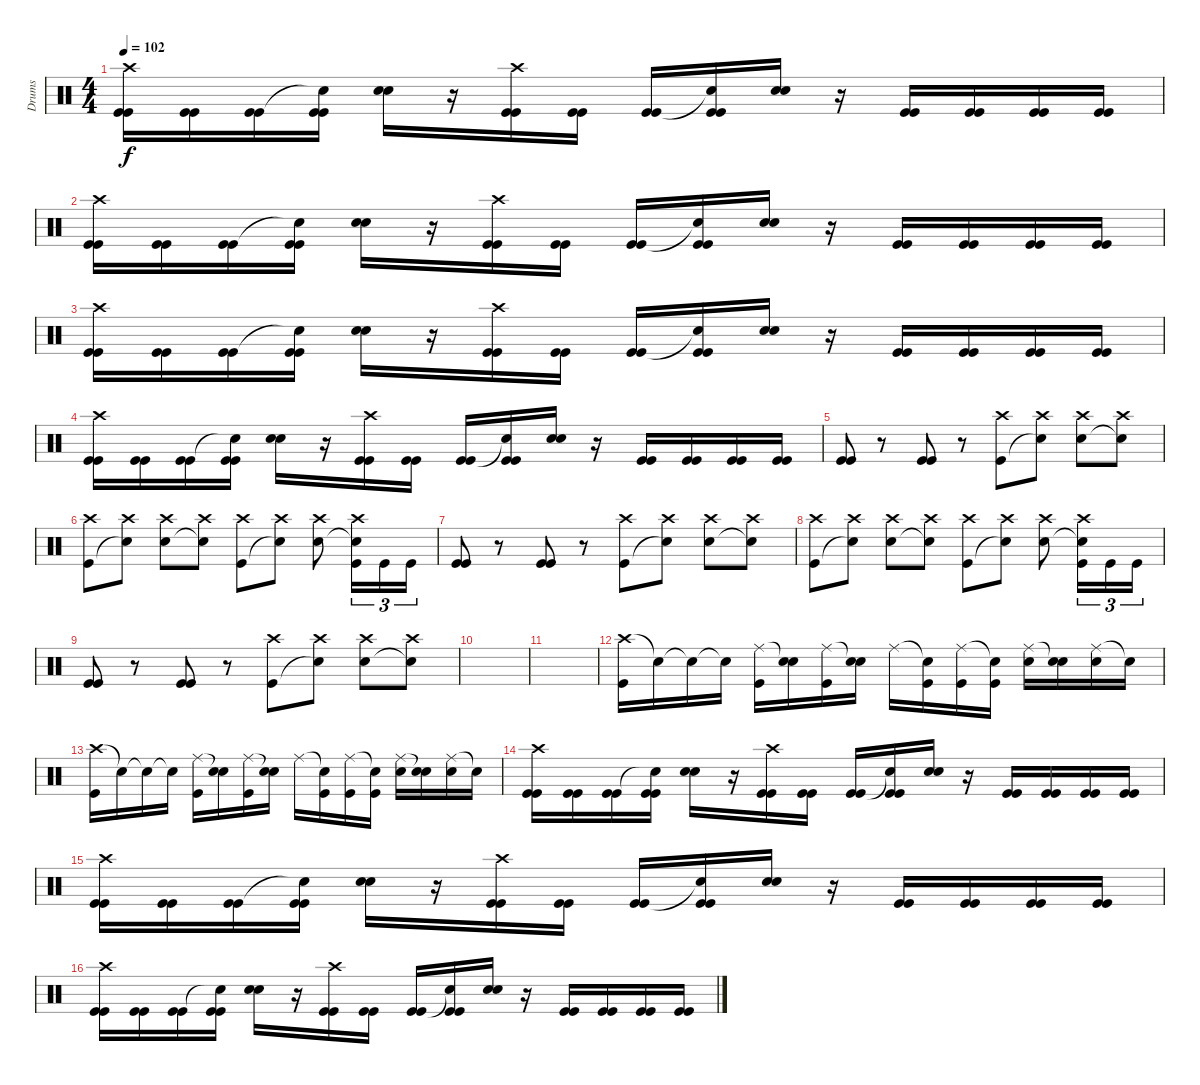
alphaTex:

\track ("Drums" "Drums") {instrument percussion}
\staff {score}
\articulation defaults
\ts (4 4)
\tempo 102
\clef neutral
\ks c
("Crash high (hit)" "Kick (hit)" "Kick (hit)").16{dy f} ("Kick (hit)" "Kick (hit)").16 ("Kick (hit)" "Kick (hit)").16 ("Snare (hit)"{t} "Kick (hit)" "Kick (hit)").16 ("Snare (hit) 2" "Snare (hit) 2").16 r.16 ("Crash high (hit)" "Kick (hit)" "Kick (hit)").16 ("Kick (hit)" "Kick (hit)").16 ("Kick (hit)" "Kick (hit)").16 ("Snare (hit)"{t} "Kick (hit)" "Kick (hit)").16 ("Snare (hit) 2" "Snare (hit) 2").16 r.16 ("Kick (hit)" "Kick (hit)").16 ("Kick (hit)" "Kick (hit)").16 ("Kick (hit)" "Kick (hit)").16 ("Kick (hit)" "Kick (hit)").16 |
("Crash high (hit)" "Kick (hit)" "Kick (hit)").16 ("Kick (hit)" "Kick (hit)").16 ("Kick (hit)" "Kick (hit)").16 ("Snare (hit)"{t} "Kick (hit)" "Kick (hit)").16 ("Snare (hit) 2" "Snare (hit) 2").16 r.16 ("Crash high (hit)" "Kick (hit)" "Kick (hit)").16 ("Kick (hit)" "Kick (hit)").16 ("Kick (hit)" "Kick (hit)").16 ("Snare (hit)"{t} "Kick (hit)" "Kick (hit)").16 ("Snare (hit) 2" "Snare (hit) 2").16 r.16 ("Kick (hit)" "Kick (hit)").16 ("Kick (hit)" "Kick (hit)").16 ("Kick (hit)" "Kick (hit)").16 ("Kick (hit)" "Kick (hit)").16 |
("Crash high (hit)" "Kick (hit)" "Kick (hit)").16 ("Kick (hit)" "Kick (hit)").16 ("Kick (hit)" "Kick (hit)").16 ("Snare (hit)"{t} "Kick (hit)" "Kick (hit)").16 ("Snare (hit) 2" "Snare (hit) 2").16 r.16 ("Crash high (hit)" "Kick (hit)" "Kick (hit)").16 ("Kick (hit)" "Kick (hit)").16 ("Kick (hit)" "Kick (hit)").16 ("Snare (hit)"{t} "Kick (hit)" "Kick (hit)").16 ("Snare (hit) 2" "Snare (hit) 2").16 r.16 ("Kick (hit)" "Kick (hit)").16 ("Kick (hit)" "Kick (hit)").16 ("Kick (hit)" "Kick (hit)").16 ("Kick (hit)" "Kick (hit)").16 |
("Crash high (hit)" "Kick (hit)" "Kick (hit)").16 ("Kick (hit)" "Kick (hit)").16 ("Kick (hit)" "Kick (hit)").16 ("Snare (hit)"{t} "Kick (hit)" "Kick (hit)").16 ("Snare (hit) 2" "Snare (hit) 2").16 r.16 ("Crash high (hit)" "Kick (hit)" "Kick (hit)").16 ("Kick (hit)" "Kick (hit)").16 ("Kick (hit)" "Kick (hit)").16 ("Snare (hit)"{t} "Kick (hit)" "Kick (hit)").16 ("Snare (hit) 2" "Snare (hit) 2").16 r.16 ("Kick (hit)" "Kick (hit)").16 ("Kick (hit)" "Kick (hit)").16 ("Kick (hit)" "Kick (hit)").16 ("Kick (hit)" "Kick (hit)").16 |
("Kick (hit)" "Kick (hit)").8 r.8 ("Kick (hit)" "Kick (hit)").8 r.8 ("Crash high (hit)" "Kick (hit)").8 ("Crash high (hit)" "Snare (hit)"{t}).8 ("Crash high (hit)" "Snare (hit) 2").8 ("Crash high (hit)" "Snare (hit)"{t}).8 |
("Crash high (hit)" "Kick (hit)").8 ("Crash high (hit)" "Snare (hit)"{t}).8 ("Crash high (hit)" "Snare (hit) 2").8 ("Crash high (hit)" "Snare (hit)"{t}).8 ("Crash high (hit)" "Kick (hit)").8 ("Crash high (hit)" "Snare (hit)"{t}).8 ("Crash high (hit)" "Snare (hit) 2").8 ("Crash high (hit)" "Snare (hit)"{t} "Kick (hit)").16{tu (3 2)} "Kick (hit)".16{tu (3 2)} "Kick (hit)".16{tu (3 2)} |
("Kick (hit)" "Kick (hit)").8 r.8 ("Kick (hit)" "Kick (hit)").8 r.8 ("Crash high (hit)" "Kick (hit)").8 ("Crash high (hit)" "Snare (hit)"{t}).8 ("Crash high (hit)" "Snare (hit) 2").8 ("Crash high (hit)" "Snare (hit)"{t}).8 |
("Crash high (hit)" "Kick (hit)").8 ("Crash high (hit)" "Snare (hit)"{t}).8 ("Crash high (hit)" "Snare (hit) 2").8 ("Crash high (hit)" "Snare (hit)"{t}).8 ("Crash high (hit)" "Kick (hit)").8 ("Crash high (hit)" "Snare (hit)"{t}).8 ("Crash high (hit)" "Snare (hit) 2").8 ("Crash high (hit)" "Snare (hit)"{t} "Kick (hit)").16{tu (3 2)} "Kick (hit)".16{tu (3 2)} "Kick (hit)".16{tu (3 2)} |
("Kick (hit)" "Kick (hit)").8 r.8 ("Kick (hit)" "Kick (hit)").8 r.8 ("Crash high (hit)" "Kick (hit)").8 ("Crash high (hit)" "Snare (hit)"{t}).8 ("Crash high (hit)" "Snare (hit) 2").8 ("Crash high (hit)" "Snare (hit)"{t}).8 |
|
|
("Crash high (hit)" "Kick (hit)").16 "Snare (hit)"{t}.16 "Snare (hit)"{t}.16 "Snare (hit)"{t}.16 ("Ride (middle)" "Kick (hit)").16 ("Snare (hit)"{t} "Snare (hit) 2").16 ("Ride (middle)" "Kick (hit)").16 ("Snare (hit)"{t} "Snare (hit) 2").16 "Ride (middle)".16 ("Snare (hit)"{t} "Kick (hit)").16 ("Ride (middle)" "Kick (hit)").16 ("Snare (hit)"{t} "Kick (hit)").16 ("Ride (middle)" "Snare (hit) 2").16 ("Snare (hit)"{t} "Snare (hit) 2").16 ("Ride (middle)" "Snare (hit) 2").16 "Snare (hit)"{t}.16 |
("Crash high (hit)" "Kick (hit)").16 "Snare (hit)"{t}.16 "Snare (hit)"{t}.16 "Snare (hit)"{t}.16 ("Ride (middle)" "Kick (hit)").16 ("Snare (hit)"{t} "Snare (hit) 2").16 ("Ride (middle)" "Kick (hit)").16 ("Snare (hit)"{t} "Snare (hit) 2").16 "Ride (middle)".16 ("Snare (hit)"{t} "Kick (hit)").16 ("Ride (middle)" "Kick (hit)").16 ("Snare (hit)"{t} "Kick (hit)").16 ("Ride (middle)" "Snare (hit) 2").16 ("Snare (hit)"{t} "Snare (hit) 2").16 ("Ride (middle)" "Snare (hit) 2").16 "Snare (hit)"{t}.16 |
("Crash high (hit)" "Kick (hit)" "Kick (hit)").16 ("Kick (hit)" "Kick (hit)").16 ("Kick (hit)" "Kick (hit)").16 ("Snare (hit)"{t} "Kick (hit)" "Kick (hit)").16 ("Snare (hit) 2" "Snare (hit) 2").16 r.16 ("Crash high (hit)" "Kick (hit)" "Kick (hit)").16 ("Kick (hit)" "Kick (hit)").16 ("Kick (hit)" "Kick (hit)").16 ("Snare (hit)"{t} "Kick (hit)" "Kick (hit)").16 ("Snare (hit) 2" "Snare (hit) 2").16 r.16 ("Kick (hit)" "Kick (hit)").16 ("Kick (hit)" "Kick (hit)").16 ("Kick (hit)" "Kick (hit)").16 ("Kick (hit)" "Kick (hit)").16 |
("Crash high (hit)" "Kick (hit)" "Kick (hit)").16 ("Kick (hit)" "Kick (hit)").16 ("Kick (hit)" "Kick (hit)").16 ("Snare (hit)"{t} "Kick (hit)" "Kick (hit)").16 ("Snare (hit) 2" "Snare (hit) 2").16 r.16 ("Crash high (hit)" "Kick (hit)" "Kick (hit)").16 ("Kick (hit)" "Kick (hit)").16 ("Kick (hit)" "Kick (hit)").16 ("Snare (hit)"{t} "Kick (hit)" "Kick (hit)").16 ("Snare (hit) 2" "Snare (hit) 2").16 r.16 ("Kick (hit)" "Kick (hit)").16 ("Kick (hit)" "Kick (hit)").16 ("Kick (hit)" "Kick (hit)").16 ("Kick (hit)" "Kick (hit)").16 |
("Crash high (hit)" "Kick (hit)" "Kick (hit)").16 ("Kick (hit)" "Kick (hit)").16 ("Kick (hit)" "Kick (hit)").16 ("Snare (hit)"{t} "Kick (hit)" "Kick (hit)").16 ("Snare (hit) 2" "Snare (hit) 2").16 r.16 ("Crash high (hit)" "Kick (hit)" "Kick (hit)").16 ("Kick (hit)" "Kick (hit)").16 ("Kick (hit)" "Kick (hit)").16 ("Snare (hit)"{t} "Kick (hit)" "Kick (hit)").16 ("Snare (hit) 2" "Snare (hit) 2").16 r.16 ("Kick (hit)" "Kick (hit)").16 ("Kick (hit)" "Kick (hit)").16 ("Kick (hit)" "Kick (hit)").16 ("Kick (hit)" "Kick (hit)").16
